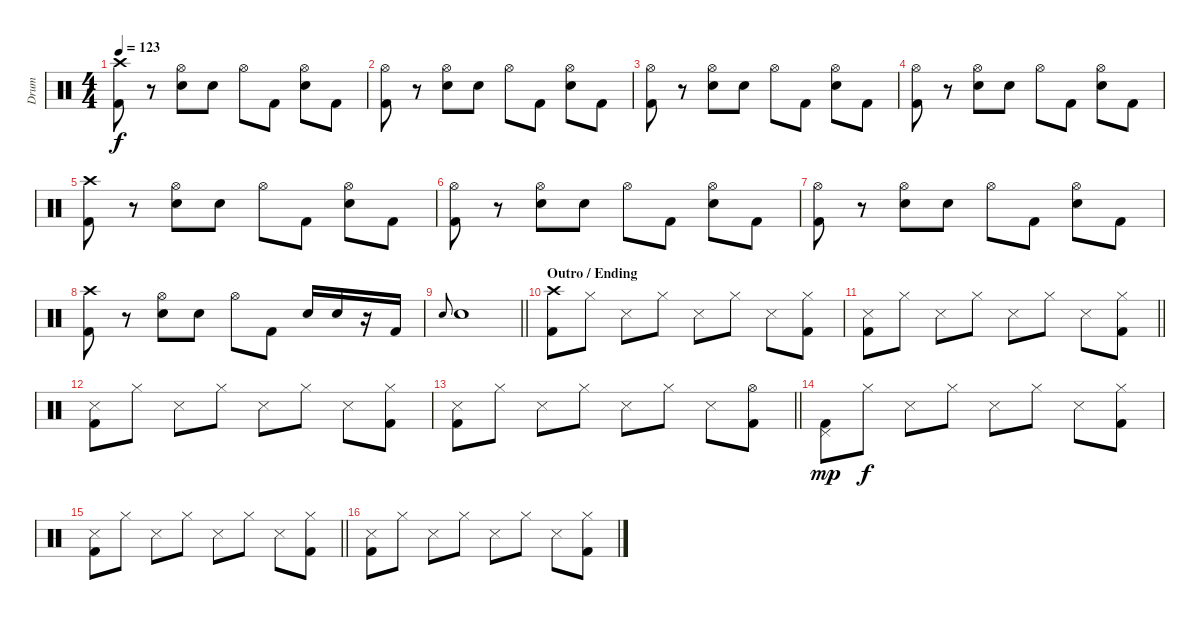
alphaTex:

\track ("Drum" "Drum") {instrument percussion}
\staff {score}
\articulation defaults
\ts (4 4)
\tempo 123
\clef neutral
\ks c
("Crash high (hit)" "Kick (hit) 2").8{dy f} r.8 ("Hi-Hat (open)" "Electric Snare (hit)").8 "Electric Snare (hit)".8 "Hi-Hat (open)".8 "Kick (hit) 2".8 ("Hi-Hat (open)" "Electric Snare (hit)").8 "Kick (hit) 2".8 |
("Hi-Hat (open)" "Kick (hit) 2").8 r.8 ("Hi-Hat (open)" "Electric Snare (hit)").8 "Electric Snare (hit)".8 "Hi-Hat (open)".8 "Kick (hit) 2".8 ("Hi-Hat (open)" "Electric Snare (hit)").8 "Kick (hit) 2".8 |
("Hi-Hat (open)" "Kick (hit) 2").8 r.8 ("Hi-Hat (open)" "Electric Snare (hit)").8 "Electric Snare (hit)".8 "Hi-Hat (open)".8 "Kick (hit) 2".8 ("Hi-Hat (open)" "Electric Snare (hit)").8 "Kick (hit) 2".8 |
("Hi-Hat (open)" "Kick (hit) 2").8 r.8 ("Hi-Hat (open)" "Electric Snare (hit)").8 "Electric Snare (hit)".8 "Hi-Hat (open)".8 "Kick (hit) 2".8 ("Hi-Hat (open)" "Electric Snare (hit)").8 "Kick (hit) 2".8 |
("Crash high (hit)" "Kick (hit) 2").8 r.8 ("Hi-Hat (open)" "Electric Snare (hit)").8 "Electric Snare (hit)".8 "Hi-Hat (open)".8 "Kick (hit) 2".8 ("Hi-Hat (open)" "Electric Snare (hit)").8 "Kick (hit) 2".8 |
("Hi-Hat (open)" "Kick (hit) 2").8 r.8 ("Hi-Hat (open)" "Electric Snare (hit)").8 "Electric Snare (hit)".8 "Hi-Hat (open)".8 "Kick (hit) 2".8 ("Hi-Hat (open)" "Electric Snare (hit)").8 "Kick (hit) 2".8 |
("Hi-Hat (open)" "Kick (hit) 2").8 r.8 ("Hi-Hat (open)" "Electric Snare (hit)").8 "Electric Snare (hit)".8 "Hi-Hat (open)".8 "Kick (hit) 2".8 ("Hi-Hat (open)" "Electric Snare (hit)").8 "Kick (hit) 2".8 |
("Crash high (hit)" "Kick (hit) 2").8 r.8 ("Hi-Hat (open)" "Electric Snare (hit)").8 "Electric Snare (hit)".8 "Hi-Hat (open)".8 "Kick (hit) 2".8 "Electric Snare (hit)".16 "Electric Snare (hit)".16 r.16 "Kick (hit) 2".16 |
\barLineRight lightlight "Electric Snare (hit)".8{gr onbeat} "Electric Snare (hit)".1
|
\section ("" "Outro / Ending")
("Crash high (hit)" "Kick (hit) 2").8 "Hi-Hat (closed)".8 "Snare (side stick) 3".8 "Hi-Hat (closed)".8 "Snare (side stick) 3".8 "Hi-Hat (closed)".8 "Snare (side stick) 3".8 ("Hi-Hat (closed)" "Kick (hit) 2").8 |
\barLineRight lightlight
("Snare (side stick) 3" "Kick (hit) 2").8 "Hi-Hat (closed)".8 "Snare (side stick) 3".8 "Hi-Hat (closed)".8 "Snare (side stick) 3".8 "Hi-Hat (closed)".8 "Snare (side stick) 3".8 ("Hi-Hat (closed)" "Kick (hit) 2").8 |
("Snare (side stick) 3" "Kick (hit) 2").8 "Hi-Hat (closed)".8 "Snare (side stick) 3".8 "Hi-Hat (closed)".8 "Snare (side stick) 3".8 "Hi-Hat (closed)".8 "Snare (side stick) 3".8 ("Hi-Hat (closed)" "Kick (hit) 2").8 |
\barLineRight lightlight
("Snare (side stick) 3" "Kick (hit) 2").8 "Hi-Hat (closed)".8 "Snare (side stick) 3".8 "Hi-Hat (closed)".8 "Snare (side stick) 3".8 "Hi-Hat (closed)".8 "Snare (side stick) 3".8 ("Hi-Hat (open)" "Kick (hit) 2").8 |
("Pedal Hi-Hat (hit)" "Kick (hit) 2").8{dy mp} "Hi-Hat (closed)".8{dy f} "Snare (side stick) 3".8 "Hi-Hat (closed)".8 "Snare (side stick) 3".8 "Hi-Hat (closed)".8 "Snare (side stick) 3".8 ("Hi-Hat (closed)" "Kick (hit) 2").8 |
\barLineRight lightlight
("Snare (side stick) 3" "Kick (hit) 2").8 "Hi-Hat (closed)".8 "Snare (side stick) 3".8 "Hi-Hat (closed)".8 "Snare (side stick) 3".8 "Hi-Hat (closed)".8 "Snare (side stick) 3".8 ("Hi-Hat (closed)" "Kick (hit) 2").8 |
("Snare (side stick) 3" "Kick (hit) 2").8 "Hi-Hat (closed)".8 "Snare (side stick) 3".8 "Hi-Hat (closed)".8 "Snare (side stick) 3".8 "Hi-Hat (closed)".8 "Snare (side stick) 3".8 ("Hi-Hat (closed)" "Kick (hit) 2").8
